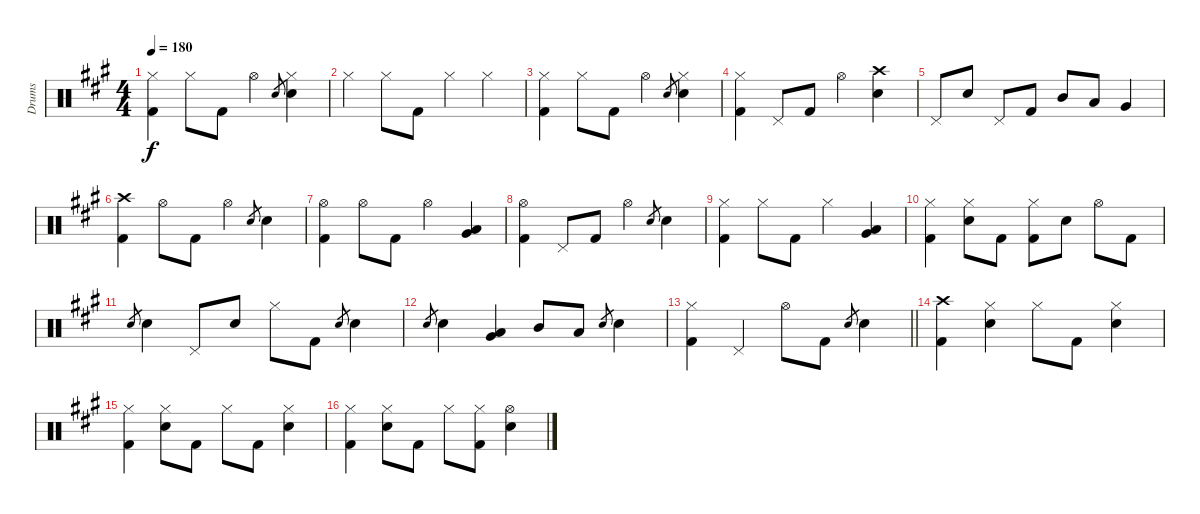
\track ("Drums" "Drums") {instrument percussion}
\staff {score}
\articulation defaults
\ts (4 4)
\tempo 180
\clef neutral
\ks a
("Hi-Hat (closed)" "Kick (hit) 2").4{dy f} "Hi-Hat (closed)".8 "Kick (hit) 2".8 "Hi-Hat (open)".4 "Electric Snare (hit)".8{gr} ("Hi-Hat (closed)" "Electric Snare (hit)").4 |
"Hi-Hat (closed)".4 "Hi-Hat (closed)".8 "Kick (hit) 2".8 "Hi-Hat (closed)".4 "Hi-Hat (closed)".4 |
("Hi-Hat (closed)" "Kick (hit) 2").4 "Hi-Hat (closed)".8 "Kick (hit) 2".8 "Hi-Hat (open)".4 "Electric Snare (hit)".8{gr} ("Hi-Hat (closed)" "Electric Snare (hit)").4 |
("Hi-Hat (closed)" "Kick (hit) 2").4 "Pedal Hi-Hat (hit)".8 "Kick (hit) 2".8 "Hi-Hat (open)".4 ("Crash high (hit)" "Electric Snare (hit)").4 |
"Pedal Hi-Hat (hit)".8 "Electric Snare (hit)".8 "Pedal Hi-Hat (hit)".8 "Kick (hit) 2".8 "Mid Tom (hit)".8 "Low Tom (hit)".8 "Very Low Tom (hit)".4 |
("Crash high (hit)" "Kick (hit) 2").4 "Hi-Hat (open)".8 "Kick (hit) 2".8 "Hi-Hat (open)".4 "Electric Snare (hit)".8{gr} "Electric Snare (hit)".4 |
("Hi-Hat (open)" "Kick (hit) 2").4 "Hi-Hat (open)".8 "Kick (hit) 2".8 "Hi-Hat (open)".4 ("Low Tom (hit)" "Very Low Tom (hit)").4 |
("Hi-Hat (open)" "Kick (hit) 2").4 "Pedal Hi-Hat (hit)".8 "Kick (hit) 2".8 "Hi-Hat (open)".4 "Electric Snare (hit)".8{gr} "Electric Snare (hit)".4 |
("Hi-Hat (closed)" "Kick (hit) 2").4 "Hi-Hat (closed)".8 "Kick (hit) 2".8 "Hi-Hat (closed)".4 ("Low Tom (hit)" "Very Low Tom (hit)").4 |
("Hi-Hat (closed)" "Kick (hit) 2").4 ("Hi-Hat (closed)" "Electric Snare (hit)").8 "Kick (hit) 2".8 ("Hi-Hat (closed)" "Kick (hit) 2").8 "Electric Snare (hit)".8 "Hi-Hat (open)".8 "Kick (hit) 2".8 |
"Electric Snare (hit)".8{gr} "Electric Snare (hit)".4 "Pedal Hi-Hat (hit)".8 "Electric Snare (hit)".8 "Hi-Hat (closed)".8 "Kick (hit) 2".8 "Electric Snare (hit)".8{gr} "Electric Snare (hit)".4 |
"Electric Snare (hit)".8{gr} "Electric Snare (hit)".4 ("Low Tom (hit)" "Very Low Tom (hit)").4 "Mid Tom (hit)".8 "Low Tom (hit)".8 "Electric Snare (hit)".8{gr} "Electric Snare (hit)".4 |
\barLineRight lightlight
("Hi-Hat (closed)" "Kick (hit) 2").4 "Pedal Hi-Hat (hit)".4 "Hi-Hat (open)".8 "Kick (hit) 2".8 "Electric Snare (hit)".8{gr} "Electric Snare (hit)".4 |
("Crash high (hit)" "Kick (hit) 2").4 ("Hi-Hat (closed)" "Electric Snare (hit)").4 "Hi-Hat (closed)".8 "Kick (hit) 2".8 ("Hi-Hat (closed)" "Electric Snare (hit)").4 |
("Hi-Hat (closed)" "Kick (hit) 2").4 ("Hi-Hat (closed)" "Electric Snare (hit)").8 "Kick (hit) 2".8 "Hi-Hat (closed)".8 "Kick (hit) 2".8 ("Hi-Hat (closed)" "Electric Snare (hit)").4 |
("Hi-Hat (closed)" "Kick (hit) 2").4 ("Hi-Hat (closed)" "Electric Snare (hit)").8 "Kick (hit) 2".8 "Hi-Hat (closed)".8 ("Hi-Hat (closed)" "Kick (hit) 2").8 ("Hi-Hat (open)" "Electric Snare (hit)").4
